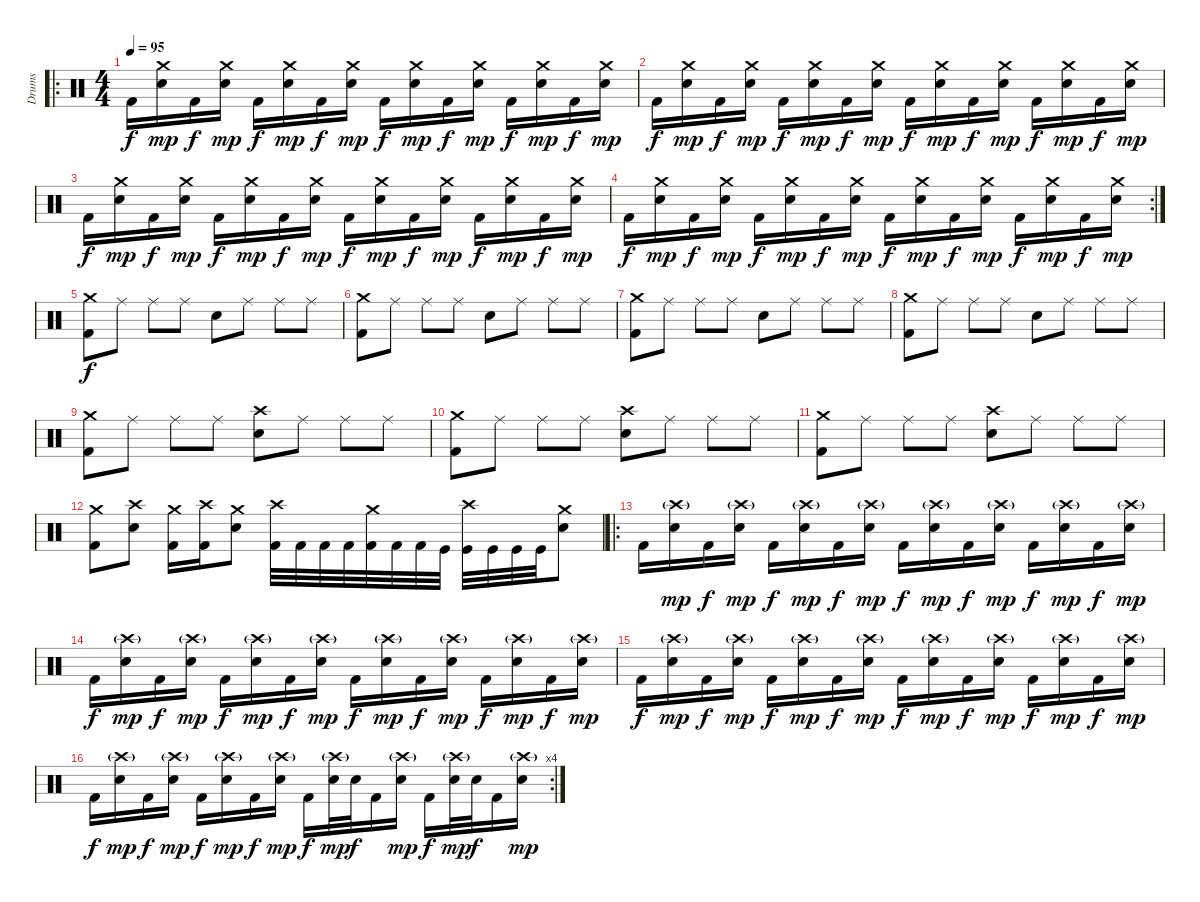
\track ("Drums" "Drums") {instrument percussion}
\staff {score}
\articulation defaults
\ro
\ts (4 4)
\tempo 95
\clef neutral
\ks c "Kick (hit) 2".16{dy f}
("Crash medium (hit)" "Snare (hit) 2").16{dy mp} "Kick (hit) 2".16{dy f} ("Crash medium (hit)" "Snare (hit) 2").16{dy mp} "Kick (hit) 2".16{dy f} ("Crash medium (hit)" "Snare (hit) 2").16{dy mp} "Kick (hit) 2".16{dy f} ("Crash medium (hit)" "Snare (hit) 2").16{dy mp} "Kick (hit) 2".16{dy f} ("Crash medium (hit)" "Snare (hit) 2").16{dy mp} "Kick (hit) 2".16{dy f} ("Crash medium (hit)" "Snare (hit) 2").16{dy mp} "Kick (hit) 2".16{dy f} ("Crash medium (hit)" "Snare (hit) 2").16{dy mp} "Kick (hit) 2".16{dy f} ("Crash medium (hit)" "Snare (hit) 2").16{dy mp} |
"Kick (hit) 2".16{dy f} ("Crash medium (hit)" "Snare (hit) 2").16{dy mp} "Kick (hit) 2".16{dy f} ("Crash medium (hit)" "Snare (hit) 2").16{dy mp} "Kick (hit) 2".16{dy f} ("Crash medium (hit)" "Snare (hit) 2").16{dy mp} "Kick (hit) 2".16{dy f} ("Crash medium (hit)" "Snare (hit) 2").16{dy mp} "Kick (hit) 2".16{dy f} ("Crash medium (hit)" "Snare (hit) 2").16{dy mp} "Kick (hit) 2".16{dy f} ("Crash medium (hit)" "Snare (hit) 2").16{dy mp} "Kick (hit) 2".16{dy f} ("Crash medium (hit)" "Snare (hit) 2").16{dy mp} "Kick (hit) 2".16{dy f} ("Crash medium (hit)" "Snare (hit) 2").16{dy mp} |
"Kick (hit) 2".16{dy f} ("Crash medium (hit)" "Snare (hit) 2").16{dy mp} "Kick (hit) 2".16{dy f} ("Crash medium (hit)" "Snare (hit) 2").16{dy mp} "Kick (hit) 2".16{dy f} ("Crash medium (hit)" "Snare (hit) 2").16{dy mp} "Kick (hit) 2".16{dy f} ("Crash medium (hit)" "Snare (hit) 2").16{dy mp} "Kick (hit) 2".16{dy f} ("Crash medium (hit)" "Snare (hit) 2").16{dy mp} "Kick (hit) 2".16{dy f} ("Crash medium (hit)" "Snare (hit) 2").16{dy mp} "Kick (hit) 2".16{dy f} ("Crash medium (hit)" "Snare (hit) 2").16{dy mp} "Kick (hit) 2".16{dy f} ("Crash medium (hit)" "Snare (hit) 2").16{dy mp} |
\rc 2 "Kick (hit) 2".16{dy f}
("Crash medium (hit)" "Snare (hit) 2").16{dy mp} "Kick (hit) 2".16{dy f} ("Crash medium (hit)" "Snare (hit) 2").16{dy mp} "Kick (hit) 2".16{dy f} ("Crash medium (hit)" "Snare (hit) 2").16{dy mp} "Kick (hit) 2".16{dy f} ("Crash medium (hit)" "Snare (hit) 2").16{dy mp} "Kick (hit) 2".16{dy f} ("Crash medium (hit)" "Snare (hit) 2").16{dy mp} "Kick (hit) 2".16{dy f} ("Crash medium (hit)" "Snare (hit) 2").16{dy mp} "Kick (hit) 2".16{dy f} ("Crash medium (hit)" "Snare (hit) 2").16{dy mp} "Kick (hit) 2".16{dy f} ("Crash medium (hit)" "Snare (hit) 2").16{dy mp} |
("Kick (hit) 2" "Crash medium (hit)").8{dy f} "Ride (middle)".8 "Ride (middle)".8 "Ride (middle)".8 "Snare (hit) 2".8 "Ride (middle)".8 "Ride (middle)".8 "Ride (middle)".8 |
("Kick (hit) 2" "Crash medium (hit)").8 "Ride (middle)".8 "Ride (middle)".8 "Ride (middle)".8 "Snare (hit) 2".8 "Ride (middle)".8 "Ride (middle)".8 "Ride (middle)".8 |
("Kick (hit) 2" "Crash medium (hit)").8 "Ride (middle)".8 "Ride (middle)".8 "Ride (middle)".8 "Snare (hit) 2".8 "Ride (middle)".8 "Ride (middle)".8 "Ride (middle)".8 |
("Kick (hit) 2" "Crash medium (hit)").8 "Ride (middle)".8 "Ride (middle)".8 "Ride (middle)".8 "Snare (hit) 2".8 "Ride (middle)".8 "Ride (middle)".8 "Ride (middle)".8 |
("Kick (hit) 2" "Crash medium (hit)").8 "Ride (middle)".8 "Ride (middle)".8 "Ride (middle)".8 ("Crash high (hit)" "Snare (hit) 2").8 "Ride (middle)".8 "Ride (middle)".8 "Ride (middle)".8 |
("Kick (hit) 2" "Crash medium (hit)").8 "Ride (middle)".8 "Ride (middle)".8 "Ride (middle)".8 ("Crash high (hit)" "Snare (hit) 2").8 "Ride (middle)".8 "Ride (middle)".8 "Ride (middle)".8 |
("Kick (hit) 2" "Crash medium (hit)").8 "Ride (middle)".8 "Ride (middle)".8 "Ride (middle)".8 ("Crash high (hit)" "Snare (hit) 2").8 "Ride (middle)".8 "Ride (middle)".8 "Ride (middle)".8 |
("Kick (hit) 2" "Crash medium (hit)").8 ("Electric Snare (hit)" "Crash high (hit)").8 ("Kick (hit) 2" "Crash medium (hit)").16 ("Kick (hit) 2" "Crash high (hit)").16 ("Electric Snare (hit)" "Crash medium (hit)").8 ("Kick (hit) 2" "Crash high (hit)").32 "Kick (hit) 2".32 "Kick (hit) 2".32 "Kick (hit) 2".32 ("Kick (hit) 2" "Crash medium (hit)").32 "Kick (hit) 2".32 "Kick (hit) 2".32 "Kick (hit)".32 ("Kick (hit)" "Crash high (hit)").32 "Kick (hit)".32 "Kick (hit)".32 "Kick (hit)".32 ("Electric Snare (hit)" "Crash medium (hit)").8 |
\ro "Kick (hit) 2".16
("Electric Snare (hit)" "Crash high (hit)"{g}).16{dy mp} "Kick (hit) 2".16{dy f} ("Electric Snare (hit)" "Crash high (hit)"{g}).16{dy mp} "Kick (hit) 2".16{dy f} ("Electric Snare (hit)" "Crash high (hit)"{g}).16{dy mp} "Kick (hit) 2".16{dy f} ("Electric Snare (hit)" "Crash high (hit)"{g}).16{dy mp} "Kick (hit) 2".16{dy f} ("Electric Snare (hit)" "Crash high (hit)"{g}).16{dy mp} "Kick (hit) 2".16{dy f} ("Electric Snare (hit)" "Crash high (hit)"{g}).16{dy mp} "Kick (hit) 2".16{dy f} ("Electric Snare (hit)" "Crash high (hit)"{g}).16{dy mp} "Kick (hit) 2".16{dy f} ("Electric Snare (hit)" "Crash high (hit)"{g}).16{dy mp} |
"Kick (hit) 2".16{dy f} ("Electric Snare (hit)" "Crash high (hit)"{g}).16{dy mp} "Kick (hit) 2".16{dy f} ("Electric Snare (hit)" "Crash high (hit)"{g}).16{dy mp} "Kick (hit) 2".16{dy f} ("Electric Snare (hit)" "Crash high (hit)"{g}).16{dy mp} "Kick (hit) 2".16{dy f} ("Electric Snare (hit)" "Crash high (hit)"{g}).16{dy mp} "Kick (hit) 2".16{dy f} ("Electric Snare (hit)" "Crash high (hit)"{g}).16{dy mp} "Kick (hit) 2".16{dy f} ("Electric Snare (hit)" "Crash high (hit)"{g}).16{dy mp} "Kick (hit) 2".16{dy f} ("Electric Snare (hit)" "Crash high (hit)"{g}).16{dy mp} "Kick (hit) 2".16{dy f} ("Electric Snare (hit)" "Crash high (hit)"{g}).16{dy mp} |
"Kick (hit) 2".16{dy f} ("Electric Snare (hit)" "Crash high (hit)"{g}).16{dy mp} "Kick (hit) 2".16{dy f} ("Electric Snare (hit)" "Crash high (hit)"{g}).16{dy mp} "Kick (hit) 2".16{dy f} ("Electric Snare (hit)" "Crash high (hit)"{g}).16{dy mp} "Kick (hit) 2".16{dy f} ("Electric Snare (hit)" "Crash high (hit)"{g}).16{dy mp} "Kick (hit) 2".16{dy f} ("Electric Snare (hit)" "Crash high (hit)"{g}).16{dy mp} "Kick (hit) 2".16{dy f} ("Electric Snare (hit)" "Crash high (hit)"{g}).16{dy mp} "Kick (hit) 2".16{dy f} ("Electric Snare (hit)" "Crash high (hit)"{g}).16{dy mp} "Kick (hit) 2".16{dy f} ("Electric Snare (hit)" "Crash high (hit)"{g}).16{dy mp} |
\rc 4 "Kick (hit) 2".16{dy f}
("Electric Snare (hit)" "Crash high (hit)"{g}).16{dy mp} "Kick (hit) 2".16{dy f} ("Electric Snare (hit)" "Crash high (hit)"{g}).16{dy mp} "Kick (hit) 2".16{dy f} ("Electric Snare (hit)" "Crash high (hit)"{g}).16{dy mp} "Kick (hit) 2".16{dy f} ("Electric Snare (hit)" "Crash high (hit)"{g}).16{dy mp} "Kick (hit) 2".16{dy f} ("Electric Snare (hit)" "Crash high (hit)"{g}).32{dy mp} "Electric Snare (hit)".32{dy f} "Kick (hit) 2".16 ("Electric Snare (hit)" "Crash high (hit)"{g}).16{dy mp} "Kick (hit) 2".16{dy f} ("Electric Snare (hit)" "Crash high (hit)"{g}).32{dy mp} "Electric Snare (hit)".32{dy f} "Kick (hit) 2".16 ("Electric Snare (hit)" "Crash high (hit)"{g}).16{dy mp}
